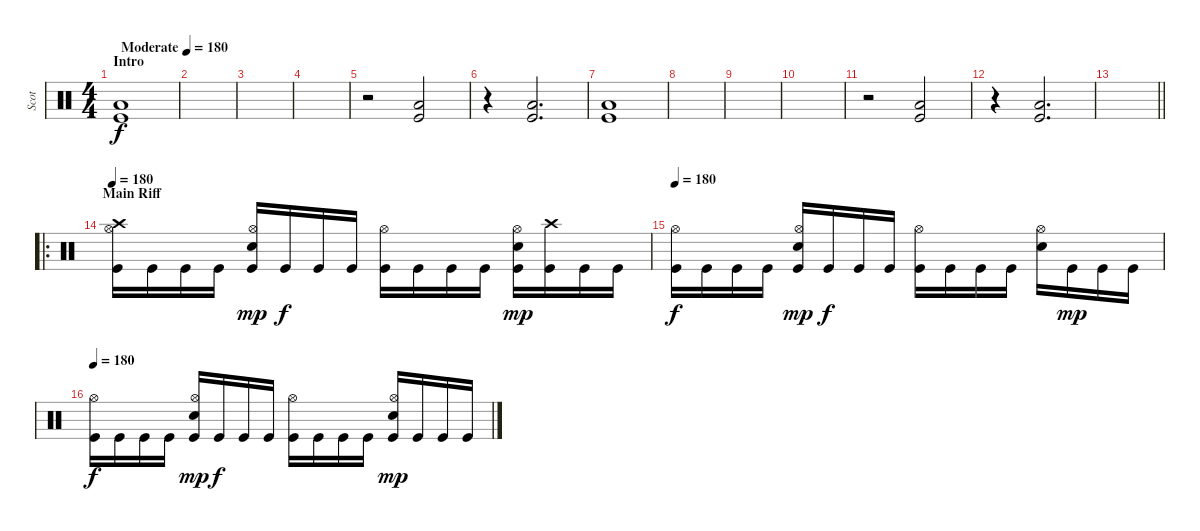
\track ("Scot" "Scot") {instrument percussion}
\staff {score}
\articulation defaults
\ts (4 4)
\section ("" "Intro")
\tempo (180 "Moderate")
\tempo 80
\tempo 75
\tempo (180 "Moderate")
\clef neutral
\ks c
("Low Floor Tom (hit)" "Kick (hit)").1{dy f} |
|
|
|
r.2 ("Low Floor Tom (hit)" "Kick (hit)").2 |
r.4 ("Low Floor Tom (hit)" "Kick (hit)").2{d} |
("Low Floor Tom (hit)" "Kick (hit)").1 |
|
|
|
r.2 ("Low Floor Tom (hit)" "Kick (hit)").2 |
r.4 ("Low Floor Tom (hit)" "Kick (hit)").2{d} |
\barLineRight lightlight
|
\ro
\section ("" "Main Riff")
\tempo 180
("Crash high (hit)" "Hi-Hat (open)" "Kick (hit)").16 "Kick (hit)".16 "Kick (hit)".16 "Kick (hit)".16 ("Electric Snare (hit)" "Hi-Hat (open)" "Kick (hit)").16{dy mp} "Kick (hit)".16{dy f} "Kick (hit)".16 "Kick (hit)".16 ("Hi-Hat (open)" "Kick (hit)").16 "Kick (hit)".16 "Kick (hit)".16 "Kick (hit)".16 ("Electric Snare (hit)" "Hi-Hat (open)" "Kick (hit)").16{dy mp} ("Crash high (hit)" "Kick (hit)").16 "Kick (hit)".16 "Kick (hit)".16 |
\tempo 180
("Hi-Hat (open)" "Kick (hit)").16{dy f} "Kick (hit)".16 "Kick (hit)".16 "Kick (hit)".16 ("Electric Snare (hit)" "Hi-Hat (open)" "Kick (hit)").16{dy mp} "Kick (hit)".16{dy f} "Kick (hit)".16 "Kick (hit)".16 ("Hi-Hat (open)" "Kick (hit)").16 "Kick (hit)".16 "Kick (hit)".16 "Kick (hit)".16 ("Electric Snare (hit)" "Hi-Hat (open)").16 "Kick (hit)".16{dy mp} "Kick (hit)".16 "Kick (hit)".16 |
\tempo 180
("Hi-Hat (open)" "Kick (hit)").16{dy f} "Kick (hit)".16 "Kick (hit)".16 "Kick (hit)".16 ("Electric Snare (hit)" "Hi-Hat (open)" "Kick (hit)").16{dy mp} "Kick (hit)".16{dy f} "Kick (hit)".16 "Kick (hit)".16 ("Hi-Hat (open)" "Kick (hit)").16 "Kick (hit)".16 "Kick (hit)".16 "Kick (hit)".16 ("Electric Snare (hit)" "Hi-Hat (open)" "Kick (hit)").16{dy mp} "Kick (hit)".16 "Kick (hit)".16 "Kick (hit)".16
